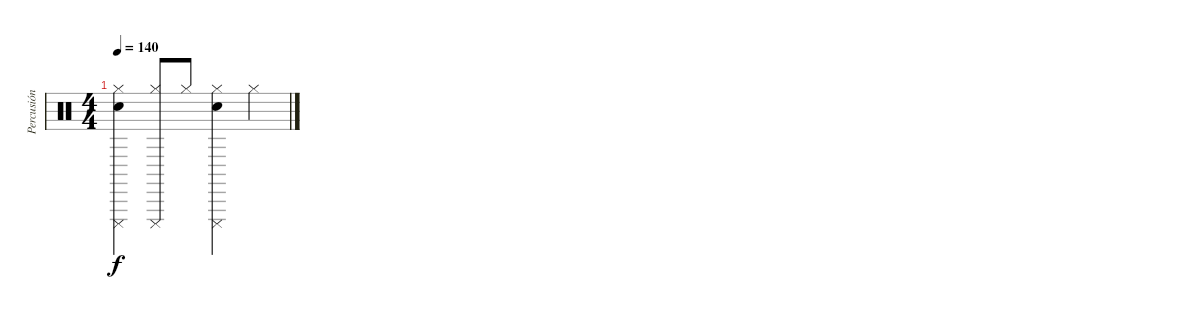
\track ("Percusión" "Percusión") {instrument percussion}
\staff {score}
\articulation defaults
\ts (4 4)
\tempo 140
\clef neutral
\ks c
("Snare (hit) 2" "Cuica (mute)" "Hi-Hat (closed)").4{dy f} ("Cuica (mute)" "Hi-Hat (closed)").8 "Hi-Hat (closed)".8 ("Snare (hit) 2" "Cuica (mute)" "Hi-Hat (closed)").4 "Hi-Hat (closed)".4
